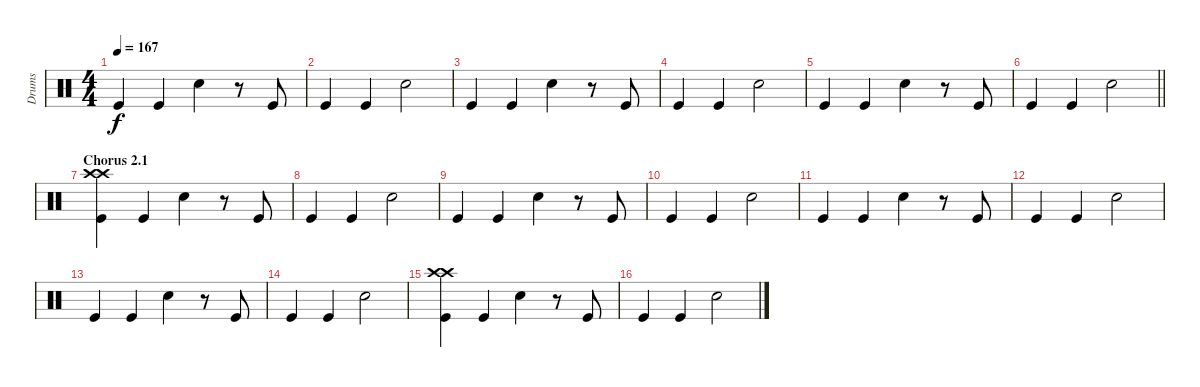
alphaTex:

\track ("Drums" "Drums") {instrument percussion}
\staff {score}
\articulation defaults
\ts (4 4)
\tempo 167
\clef neutral
\ks c "Kick (hit)".4{dy f} "Kick (hit)".4 "Electric Snare (hit)".4
r.8 "Kick (hit)".8 |
"Kick (hit)".4 "Kick (hit)".4 "Electric Snare (hit)".2 |
"Kick (hit)".4 "Kick (hit)".4 "Electric Snare (hit)".4 r.8 "Kick (hit)".8 |
"Kick (hit)".4 "Kick (hit)".4 "Electric Snare (hit)".2 |
"Kick (hit)".4 "Kick (hit)".4 "Electric Snare (hit)".4 r.8 "Kick (hit)".8 |
\barLineRight lightlight "Kick (hit)".4 "Kick (hit)".4 "Electric Snare (hit)".2
|
\section ("" "Chorus 2.1")
("Crash high (hit)" "Kick (hit)" "Crash high (hit)").4 "Kick (hit)".4 "Electric Snare (hit)".4 r.8 "Kick (hit)".8 |
"Kick (hit)".4 "Kick (hit)".4 "Electric Snare (hit)".2 |
"Kick (hit)".4 "Kick (hit)".4 "Electric Snare (hit)".4 r.8 "Kick (hit)".8 |
"Kick (hit)".4 "Kick (hit)".4 "Electric Snare (hit)".2 |
"Kick (hit)".4 "Kick (hit)".4 "Electric Snare (hit)".4 r.8 "Kick (hit)".8 |
"Kick (hit)".4 "Kick (hit)".4 "Electric Snare (hit)".2 |
"Kick (hit)".4 "Kick (hit)".4 "Electric Snare (hit)".4 r.8 "Kick (hit)".8 |
"Kick (hit)".4 "Kick (hit)".4 "Electric Snare (hit)".2 |
("Crash high (hit)" "Kick (hit)" "Crash high (hit)").4 "Kick (hit)".4 "Electric Snare (hit)".4 r.8 "Kick (hit)".8 |
"Kick (hit)".4 "Kick (hit)".4 "Electric Snare (hit)".2
